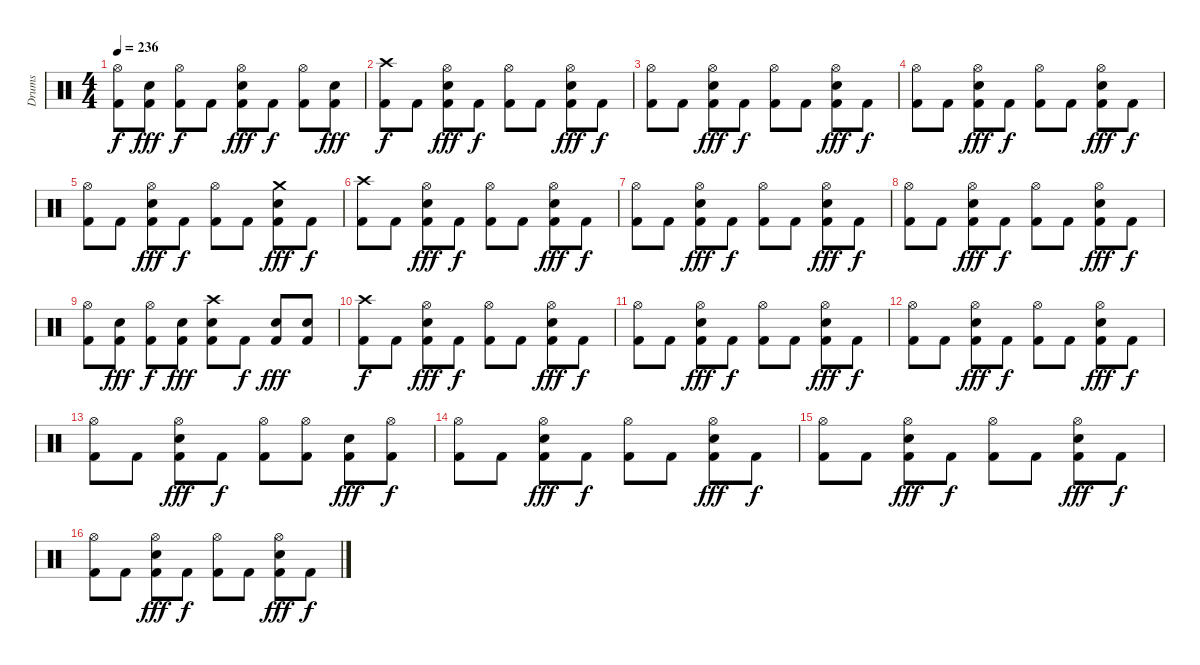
\track ("Drums" "Drums") {instrument percussion}
\staff {score}
\articulation defaults
\ts (4 4)
\tempo 236
\clef neutral
\ks c
("Hi-Hat (open)" "Kick (hit) 2").8{dy f} ("Kick (hit) 2" "Electric Snare (hit)").8{dy fff} ("Hi-Hat (open)" "Kick (hit) 2").8{dy f} "Kick (hit) 2".8 ("Hi-Hat (open)" "Kick (hit) 2" "Electric Snare (hit)").8{dy fff} "Kick (hit) 2".8{dy f} ("Hi-Hat (open)" "Kick (hit) 2").8 ("Kick (hit) 2" "Electric Snare (hit)").8{dy fff} |
("Crash high (hit)" "Kick (hit) 2").8{dy f} "Kick (hit) 2".8 ("Hi-Hat (open)" "Kick (hit) 2" "Electric Snare (hit)").8{dy fff} "Kick (hit) 2".8{dy f} ("Hi-Hat (open)" "Kick (hit) 2").8 "Kick (hit) 2".8 ("Hi-Hat (open)" "Kick (hit) 2" "Electric Snare (hit)").8{dy fff} "Kick (hit) 2".8{dy f} |
("Kick (hit) 2" "Hi-Hat (open)").8 "Kick (hit) 2".8 ("Kick (hit) 2" "Hi-Hat (open)" "Electric Snare (hit)").8{dy fff} "Kick (hit) 2".8{dy f} ("Kick (hit) 2" "Hi-Hat (open)").8 "Kick (hit) 2".8 ("Kick (hit) 2" "Hi-Hat (open)" "Electric Snare (hit)").8{dy fff} "Kick (hit) 2".8{dy f} |
("Hi-Hat (open)" "Kick (hit) 2").8 "Kick (hit) 2".8 ("Hi-Hat (open)" "Kick (hit) 2" "Electric Snare (hit)").8{dy fff} "Kick (hit) 2".8{dy f} ("Hi-Hat (open)" "Kick (hit) 2").8 "Kick (hit) 2".8 ("Hi-Hat (open)" "Kick (hit) 2" "Electric Snare (hit)").8{dy fff} "Kick (hit) 2".8{dy f} |
("Hi-Hat (open)" "Kick (hit) 2").8 "Kick (hit) 2".8 ("Hi-Hat (open)" "Kick (hit) 2" "Electric Snare (hit)").8{dy fff} "Kick (hit) 2".8{dy f} ("Hi-Hat (open)" "Kick (hit) 2").8 "Kick (hit) 2".8 ("Crash medium (hit)" "Kick (hit) 2" "Electric Snare (hit)").8{dy fff} "Kick (hit) 2".8{dy f} |
("Crash high (hit)" "Kick (hit) 2").8 "Kick (hit) 2".8 ("Hi-Hat (open)" "Kick (hit) 2" "Electric Snare (hit)").8{dy fff} "Kick (hit) 2".8{dy f} ("Hi-Hat (open)" "Kick (hit) 2").8 "Kick (hit) 2".8 ("Hi-Hat (open)" "Kick (hit) 2" "Electric Snare (hit)").8{dy fff} "Kick (hit) 2".8{dy f} |
("Kick (hit) 2" "Hi-Hat (open)").8 "Kick (hit) 2".8 ("Kick (hit) 2" "Hi-Hat (open)" "Electric Snare (hit)").8{dy fff} "Kick (hit) 2".8{dy f} ("Kick (hit) 2" "Hi-Hat (open)").8 "Kick (hit) 2".8 ("Kick (hit) 2" "Hi-Hat (open)" "Electric Snare (hit)").8{dy fff} "Kick (hit) 2".8{dy f} |
("Hi-Hat (open)" "Kick (hit) 2").8 "Kick (hit) 2".8 ("Hi-Hat (open)" "Kick (hit) 2" "Electric Snare (hit)").8{dy fff} "Kick (hit) 2".8{dy f} ("Hi-Hat (open)" "Kick (hit) 2").8 "Kick (hit) 2".8 ("Hi-Hat (open)" "Kick (hit) 2" "Electric Snare (hit)").8{dy fff} "Kick (hit) 2".8{dy f} |
("Hi-Hat (open)" "Kick (hit) 2").8 ("Kick (hit) 2" "Electric Snare (hit)").8{dy fff} ("Hi-Hat (open)" "Kick (hit) 2").8{dy f} ("Kick (hit) 2" "Electric Snare (hit)").8{dy fff} ("Crash high (hit)" "Kick (hit) 2" "Electric Snare (hit)").8 "Kick (hit) 2".8{dy f} ("Kick (hit) 2" "Electric Snare (hit)").8{dy fff} ("Kick (hit) 2" "Electric Snare (hit)").8 |
("Crash high (hit)" "Kick (hit) 2").8{dy f} "Kick (hit) 2".8 ("Hi-Hat (open)" "Kick (hit) 2" "Electric Snare (hit)").8{dy fff} "Kick (hit) 2".8{dy f} ("Hi-Hat (open)" "Kick (hit) 2").8 "Kick (hit) 2".8 ("Hi-Hat (open)" "Kick (hit) 2" "Electric Snare (hit)").8{dy fff} "Kick (hit) 2".8{dy f} |
("Hi-Hat (open)" "Kick (hit) 2").8 "Kick (hit) 2".8 ("Hi-Hat (open)" "Kick (hit) 2" "Electric Snare (hit)").8{dy fff} "Kick (hit) 2".8{dy f} ("Hi-Hat (open)" "Kick (hit) 2").8 "Kick (hit) 2".8 ("Hi-Hat (open)" "Kick (hit) 2" "Electric Snare (hit)").8{dy fff} "Kick (hit) 2".8{dy f} |
("Hi-Hat (open)" "Kick (hit) 2").8 "Kick (hit) 2".8 ("Hi-Hat (open)" "Kick (hit) 2" "Electric Snare (hit)").8{dy fff} "Kick (hit) 2".8{dy f} ("Hi-Hat (open)" "Kick (hit) 2").8 "Kick (hit) 2".8 ("Hi-Hat (open)" "Kick (hit) 2" "Electric Snare (hit)").8{dy fff} "Kick (hit) 2".8{dy f} |
("Hi-Hat (open)" "Kick (hit) 2").8 "Kick (hit) 2".8 ("Hi-Hat (open)" "Kick (hit) 2" "Electric Snare (hit)").8{dy fff} "Kick (hit) 2".8{dy f} ("Hi-Hat (open)" "Kick (hit) 2").8 ("Hi-Hat (open)" "Kick (hit) 2").8 ("Kick (hit) 2" "Electric Snare (hit)").8{dy fff} ("Hi-Hat (open)" "Kick (hit) 2").8{dy f} |
("Hi-Hat (open)" "Kick (hit) 2").8 "Kick (hit) 2".8 ("Hi-Hat (open)" "Kick (hit) 2" "Electric Snare (hit)").8{dy fff} "Kick (hit) 2".8{dy f} ("Hi-Hat (open)" "Kick (hit) 2").8 "Kick (hit) 2".8 ("Hi-Hat (open)" "Kick (hit) 2" "Electric Snare (hit)").8{dy fff} "Kick (hit) 2".8{dy f} |
("Hi-Hat (open)" "Kick (hit) 2").8 "Kick (hit) 2".8 ("Hi-Hat (open)" "Kick (hit) 2" "Electric Snare (hit)").8{dy fff} "Kick (hit) 2".8{dy f} ("Hi-Hat (open)" "Kick (hit) 2").8 "Kick (hit) 2".8 ("Hi-Hat (open)" "Kick (hit) 2" "Electric Snare (hit)").8{dy fff} "Kick (hit) 2".8{dy f} |
("Hi-Hat (open)" "Kick (hit) 2").8 "Kick (hit) 2".8 ("Hi-Hat (open)" "Kick (hit) 2" "Electric Snare (hit)").8{dy fff} "Kick (hit) 2".8{dy f} ("Hi-Hat (open)" "Kick (hit) 2").8 "Kick (hit) 2".8 ("Hi-Hat (open)" "Kick (hit) 2" "Electric Snare (hit)").8{dy fff} "Kick (hit) 2".8{dy f}
